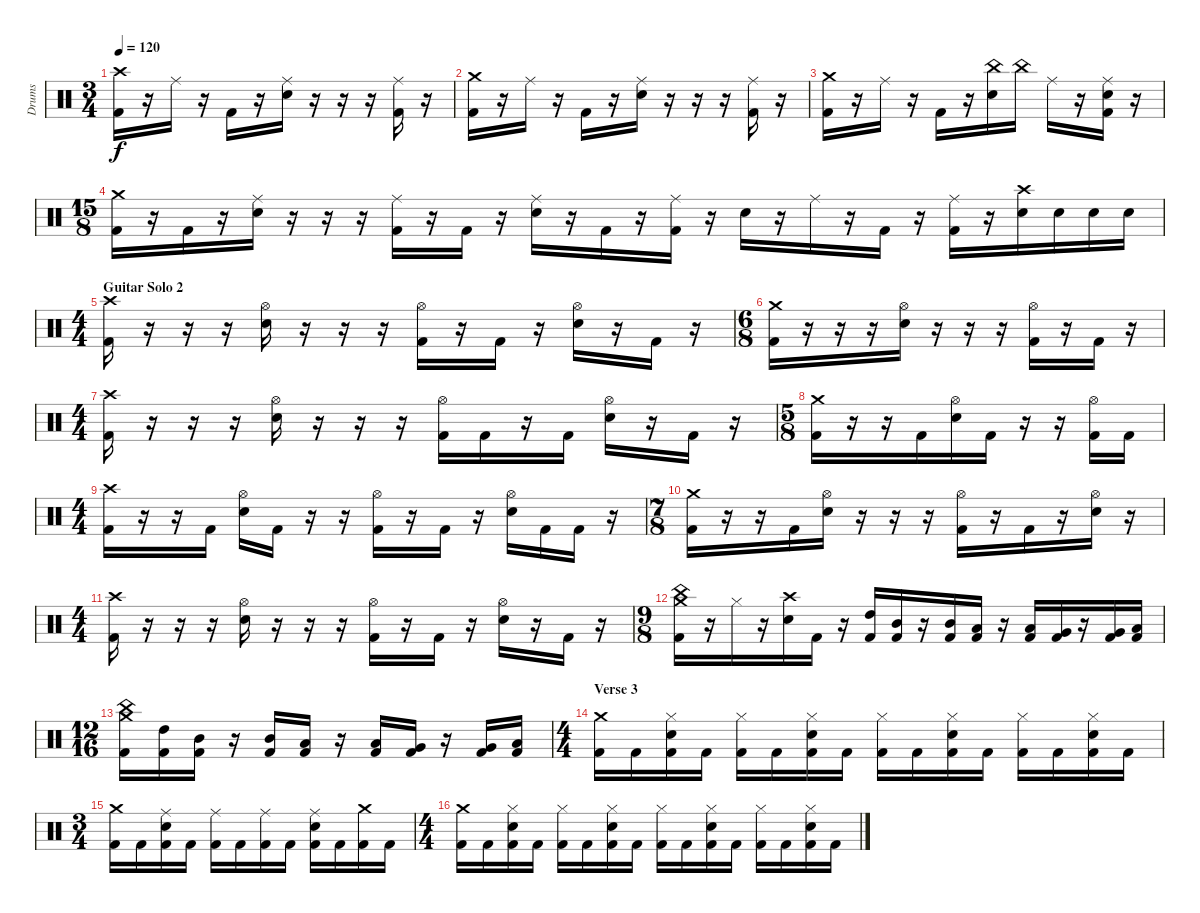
\track ("Drums" "Drums") {instrument percussion}
\staff {score}
\articulation defaults
\ts (3 4)
\tempo 120
\clef neutral
\ks c
("Crash high (hit)" "Kick (hit) 2").16{dy f} r.16 "Ride (middle)".16 r.16 "Kick (hit) 2".16 r.16 ("Ride (middle)" "Electric Snare (hit)").16 r.16 r.16 r.16 ("Ride (middle)" "Kick (hit) 2").16 r.16 |
("Crash medium (hit)" "Kick (hit) 2").16 r.16 "Ride (middle)".16 r.16 "Kick (hit) 2".16 r.16 ("Ride (middle)" "Electric Snare (hit)").16 r.16 r.16 r.16 ("Ride (middle)" "Kick (hit) 2").16 r.16 |
("Crash medium (hit)" "Kick (hit) 2").16 r.16 "Ride (middle)".16 r.16 "Kick (hit) 2".16 r.16 ("China (hit)" "Electric Snare (hit)").16 "China (hit)".16 "Ride (middle)".16 r.16 ("Ride (middle)" "Electric Snare (hit)" "Kick (hit) 2").16 r.16 |
\ts (15 8)
("Crash medium (hit)" "Kick (hit) 2").16 r.16 "Kick (hit) 2".16 r.16 ("Ride (middle)" "Electric Snare (hit)").16 r.16 r.16 r.16 ("Ride (middle)" "Kick (hit) 2").16 r.16 "Kick (hit) 2".16 r.16 ("Ride (middle)" "Electric Snare (hit)").16 r.16 "Kick (hit) 2".16 r.16 ("Ride (middle)" "Kick (hit) 2").16 r.16 "Electric Snare (hit)".16 r.16 "Ride (middle)".16 r.16 "Kick (hit) 2".16 r.16 ("Ride (middle)" "Kick (hit) 2").16 r.16 ("Crash high (hit)" "Electric Snare (hit)").16 "Electric Snare (hit)".16 "Electric Snare (hit)".16 "Electric Snare (hit)".16 |
\ts (4 4)
\section ("" "Guitar Solo 2")
("Crash high (hit)" "Kick (hit) 2").16 r.16 r.16 r.16 ("Hi-Hat (open)" "Electric Snare (hit)").16 r.16 r.16 r.16 ("Hi-Hat (open)" "Kick (hit) 2").16 r.16 "Kick (hit) 2".16 r.16 ("Hi-Hat (open)" "Electric Snare (hit)").16 r.16 "Kick (hit) 2".16 r.16 |
\ts (6 8)
("Crash medium (hit)" "Kick (hit) 2").16 r.16 r.16 r.16 ("Hi-Hat (open)" "Electric Snare (hit)").16 r.16 r.16 r.16 ("Hi-Hat (open)" "Kick (hit) 2").16 r.16 "Kick (hit) 2".16 r.16 |
\ts (4 4)
("Crash high (hit)" "Kick (hit) 2").16 r.16 r.16 r.16 ("Hi-Hat (open)" "Electric Snare (hit)").16 r.16 r.16 r.16 ("Hi-Hat (open)" "Kick (hit) 2").16 "Kick (hit) 2".16 r.16 "Kick (hit) 2".16 ("Hi-Hat (open)" "Electric Snare (hit)").16 r.16 "Kick (hit) 2".16 r.16 |
\ts (5 8)
("Crash medium (hit)" "Kick (hit) 2").16 r.16 r.16 "Kick (hit) 2".16 ("Hi-Hat (open)" "Electric Snare (hit)").16 "Kick (hit) 2".16 r.16 r.16 ("Hi-Hat (open)" "Kick (hit) 2").16 "Kick (hit) 2".16 |
\ts (4 4)
("Crash high (hit)" "Kick (hit) 2").16 r.16 r.16 "Kick (hit) 2".16 ("Hi-Hat (open)" "Electric Snare (hit)").16 "Kick (hit) 2".16 r.16 r.16 ("Hi-Hat (open)" "Kick (hit) 2").16 r.16 "Kick (hit) 2".16 r.16 ("Hi-Hat (open)" "Electric Snare (hit)").16 "Kick (hit) 2".16 "Kick (hit) 2".16 r.16 |
\ts (7 8)
("Crash medium (hit)" "Kick (hit) 2").16 r.16 r.16 "Kick (hit) 2".16 ("Hi-Hat (open)" "Electric Snare (hit)").16 r.16 r.16 r.16 ("Hi-Hat (open)" "Kick (hit) 2").16 r.16 "Kick (hit) 2".16 r.16 ("Hi-Hat (open)" "Electric Snare (hit)").16 r.16 |
\ts (4 4)
("Crash high (hit)" "Kick (hit) 2").16 r.16 r.16 r.16 ("Hi-Hat (open)" "Electric Snare (hit)").16 r.16 r.16 r.16 ("Hi-Hat (open)" "Kick (hit) 2").16 r.16 "Kick (hit) 2".16 r.16 ("Hi-Hat (open)" "Electric Snare (hit)").16 r.16 "Kick (hit) 2".16 r.16 |
\ts (9 8)
("China (hit)" "Crash medium (hit)" "Kick (hit) 2").16 r.16 "Hi-Hat (closed)".16 r.16 ("Crash high (hit)" "Electric Snare (hit)").16 "Kick (hit) 2".16 r.16 ("High Tom (hit)" "Kick (hit) 2").16 ("Mid Tom (hit)" "Kick (hit) 2").16 r.16 ("Mid Tom (hit)" "Kick (hit) 2").16 ("Low Tom (hit)" "Kick (hit) 2").16 r.16 ("Low Tom (hit)" "Kick (hit) 2").16 ("Very Low Tom (hit)" "Kick (hit) 2").16 r.16 ("Very Low Tom (hit)" "Kick (hit) 2").16 ("Low Floor Tom (hit)" "Kick (hit) 2").16 |
\ts (12 16)
("China (hit)" "Crash medium (hit)" "Kick (hit) 2").16 ("High Tom (hit)" "Kick (hit) 2").16 ("Mid Tom (hit)" "Kick (hit) 2").16 r.16 ("Mid Tom (hit)" "Kick (hit) 2").16 ("Low Tom (hit)" "Kick (hit) 2").16 r.16 ("Low Tom (hit)" "Kick (hit) 2").16 ("Very Low Tom (hit)" "Kick (hit) 2").16 r.16 ("Very Low Tom (hit)" "Kick (hit) 2").16 ("Low Floor Tom (hit)" "Kick (hit) 2").16 |
\ts (4 4)
\section ("" "Verse 3")
("Crash medium (hit)" "Kick (hit) 2").16 "Kick (hit) 2".16 ("Hi-Hat (closed)" "Electric Snare (hit)" "Kick (hit) 2").16 "Kick (hit) 2".16 ("Hi-Hat (closed)" "Kick (hit) 2").16 "Kick (hit) 2".16 ("Hi-Hat (closed)" "Electric Snare (hit)" "Kick (hit) 2").16 "Kick (hit) 2".16 ("Hi-Hat (closed)" "Kick (hit) 2").16 "Kick (hit) 2".16 ("Hi-Hat (closed)" "Electric Snare (hit)" "Kick (hit) 2").16 "Kick (hit) 2".16 ("Hi-Hat (closed)" "Kick (hit) 2").16 "Kick (hit) 2".16 ("Hi-Hat (closed)" "Electric Snare (hit)" "Kick (hit) 2").16 "Kick (hit) 2".16 |
\ts (3 4)
("Crash medium (hit)" "Kick (hit) 2").16 "Kick (hit) 2".16 ("Ride (middle)" "Electric Snare (hit)" "Kick (hit) 2").16 "Kick (hit) 2".16 ("Ride (middle)" "Kick (hit) 2").16 "Kick (hit) 2".16 ("Ride (middle)" "Kick (hit) 2").16 "Kick (hit) 2".16 ("Ride (middle)" "Electric Snare (hit)" "Kick (hit) 2").16 "Kick (hit) 2".16 ("Crash medium (hit)" "Kick (hit) 2").16 "Kick (hit) 2".16 |
\ts (4 4)
("Crash medium (hit)" "Kick (hit) 2").16 "Kick (hit) 2".16 ("Hi-Hat (closed)" "Electric Snare (hit)" "Kick (hit) 2").16 "Kick (hit) 2".16 ("Hi-Hat (closed)" "Kick (hit) 2").16 "Kick (hit) 2".16 ("Hi-Hat (closed)" "Electric Snare (hit)" "Kick (hit) 2").16 "Kick (hit) 2".16 ("Hi-Hat (closed)" "Kick (hit) 2").16 "Kick (hit) 2".16 ("Hi-Hat (closed)" "Electric Snare (hit)" "Kick (hit) 2").16 "Kick (hit) 2".16 ("Hi-Hat (closed)" "Kick (hit) 2").16 "Kick (hit) 2".16 ("Hi-Hat (closed)" "Electric Snare (hit)" "Kick (hit) 2").16 "Kick (hit) 2".16
